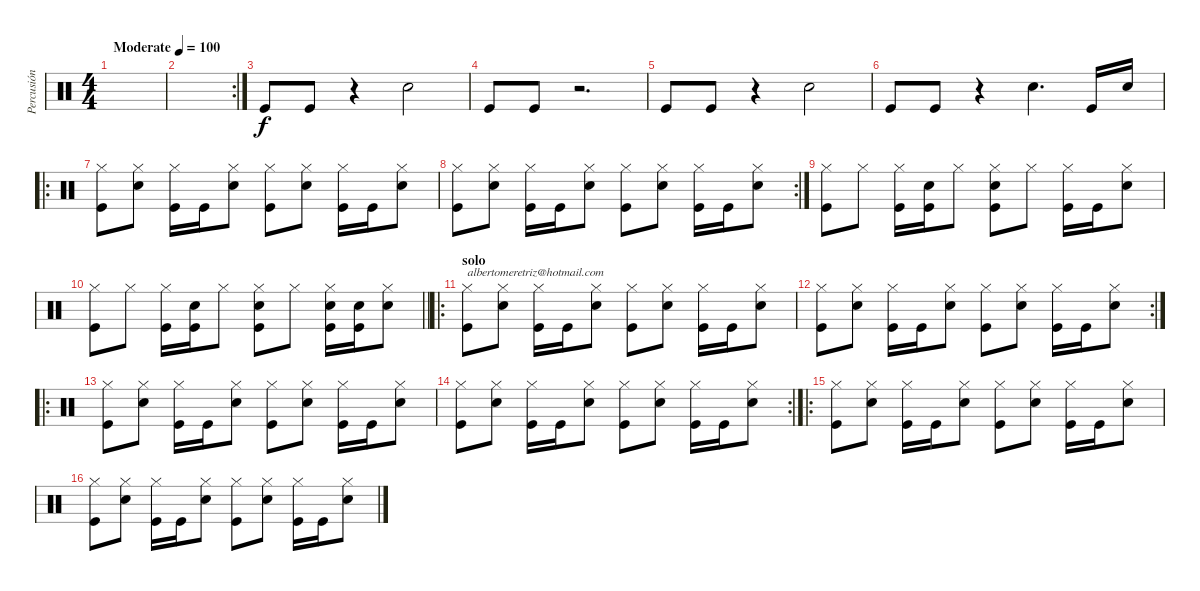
\track ("Percusión" "Percusión") {instrument percussion}
\staff {score}
\articulation defaults
\ts (4 4)
\tempo (100 "Moderate")
\clef neutral
\ks c
|
\rc 2
|
"Kick (hit)".8 "Kick (hit)".8 r.4 "Electric Snare (hit)".2 |
"Kick (hit)".8 "Kick (hit)".8 r.2{d} |
"Kick (hit)".8 "Kick (hit)".8 r.4 "Electric Snare (hit)".2 |
"Kick (hit)".8 "Kick (hit)".8 r.4 "Electric Snare (hit)".4{d} "Kick (hit)".16 "Electric Snare (hit)".16 |
\ro
("Hi-Hat (closed)" "Kick (hit)").8 ("Hi-Hat (closed)" "Electric Snare (hit)").8 ("Hi-Hat (closed)" "Kick (hit)").16 "Kick (hit)".16 ("Hi-Hat (closed)" "Electric Snare (hit)").8 ("Hi-Hat (closed)" "Kick (hit)").8 ("Hi-Hat (closed)" "Electric Snare (hit)").8 ("Hi-Hat (closed)" "Kick (hit)").16 "Kick (hit)".16 ("Hi-Hat (closed)" "Electric Snare (hit)").8 |
\rc 2
("Hi-Hat (closed)" "Kick (hit)").8 ("Hi-Hat (closed)" "Electric Snare (hit)").8 ("Hi-Hat (closed)" "Kick (hit)").16 "Kick (hit)".16 ("Hi-Hat (closed)" "Electric Snare (hit)").8 ("Hi-Hat (closed)" "Kick (hit)").8 ("Hi-Hat (closed)" "Electric Snare (hit)").8 ("Hi-Hat (closed)" "Kick (hit)").16 "Kick (hit)".16 ("Hi-Hat (closed)" "Electric Snare (hit)").8 |
("Hi-Hat (closed)" "Kick (hit)").8 "Hi-Hat (closed)".8 ("Hi-Hat (closed)" "Kick (hit)").16 ("Electric Snare (hit)" "Kick (hit)").16 "Hi-Hat (closed)".8 ("Hi-Hat (closed)" "Electric Snare (hit)" "Kick (hit)").8 "Hi-Hat (closed)".8 ("Hi-Hat (closed)" "Kick (hit)").16 "Kick (hit)".16 ("Hi-Hat (closed)" "Electric Snare (hit)").8 |
\barLineRight lightlight
("Hi-Hat (closed)" "Kick (hit)").8 "Hi-Hat (closed)".8 ("Hi-Hat (closed)" "Kick (hit)").16 ("Electric Snare (hit)" "Kick (hit)").16 "Hi-Hat (closed)".8 ("Hi-Hat (closed)" "Electric Snare (hit)" "Kick (hit)").8 "Hi-Hat (closed)".8 ("Hi-Hat (closed)" "Electric Snare (hit)" "Kick (hit)").16 ("Electric Snare (hit)" "Kick (hit)").16 ("Hi-Hat (closed)" "Electric Snare (hit)").8 |
\ro
\section ("" "solo")
("Hi-Hat (closed)" "Kick (hit)").8{txt "albertomeretriz@hotmail.com"} ("Hi-Hat (closed)" "Electric Snare (hit)").8 ("Hi-Hat (closed)" "Kick (hit)").16 "Kick (hit)".16 ("Hi-Hat (closed)" "Electric Snare (hit)").8 ("Hi-Hat (closed)" "Kick (hit)").8 ("Hi-Hat (closed)" "Electric Snare (hit)").8 ("Hi-Hat (closed)" "Kick (hit)").16 "Kick (hit)".16 ("Hi-Hat (closed)" "Electric Snare (hit)").8 |
\rc 2
("Hi-Hat (closed)" "Kick (hit)").8 ("Hi-Hat (closed)" "Electric Snare (hit)").8 ("Hi-Hat (closed)" "Kick (hit)").16 "Kick (hit)".16 ("Hi-Hat (closed)" "Electric Snare (hit)").8 ("Hi-Hat (closed)" "Kick (hit)").8 ("Hi-Hat (closed)" "Electric Snare (hit)").8 ("Hi-Hat (closed)" "Kick (hit)").16 "Kick (hit)".16 ("Hi-Hat (closed)" "Electric Snare (hit)").8 |
\ro
("Hi-Hat (closed)" "Kick (hit)").8 ("Hi-Hat (closed)" "Electric Snare (hit)").8 ("Hi-Hat (closed)" "Kick (hit)").16 "Kick (hit)".16 ("Hi-Hat (closed)" "Electric Snare (hit)").8 ("Hi-Hat (closed)" "Kick (hit)").8 ("Hi-Hat (closed)" "Electric Snare (hit)").8 ("Hi-Hat (closed)" "Kick (hit)").16 "Kick (hit)".16 ("Hi-Hat (closed)" "Electric Snare (hit)").8 |
\rc 2
("Hi-Hat (closed)" "Kick (hit)").8 ("Hi-Hat (closed)" "Electric Snare (hit)").8 ("Hi-Hat (closed)" "Kick (hit)").16 "Kick (hit)".16 ("Hi-Hat (closed)" "Electric Snare (hit)").8 ("Hi-Hat (closed)" "Kick (hit)").8 ("Hi-Hat (closed)" "Electric Snare (hit)").8 ("Hi-Hat (closed)" "Kick (hit)").16 "Kick (hit)".16 ("Hi-Hat (closed)" "Electric Snare (hit)").8 |
\ro
("Hi-Hat (closed)" "Kick (hit)").8 ("Hi-Hat (closed)" "Electric Snare (hit)").8 ("Hi-Hat (closed)" "Kick (hit)").16 "Kick (hit)".16 ("Hi-Hat (closed)" "Electric Snare (hit)").8 ("Hi-Hat (closed)" "Kick (hit)").8 ("Hi-Hat (closed)" "Electric Snare (hit)").8 ("Hi-Hat (closed)" "Kick (hit)").16 "Kick (hit)".16 ("Hi-Hat (closed)" "Electric Snare (hit)").8 |
("Hi-Hat (closed)" "Kick (hit)").8 ("Hi-Hat (closed)" "Electric Snare (hit)").8 ("Hi-Hat (closed)" "Kick (hit)").16 "Kick (hit)".16 ("Hi-Hat (closed)" "Electric Snare (hit)").8 ("Hi-Hat (closed)" "Kick (hit)").8 ("Hi-Hat (closed)" "Electric Snare (hit)").8 ("Hi-Hat (closed)" "Kick (hit)").16 "Kick (hit)".16 ("Hi-Hat (closed)" "Electric Snare (hit)").8
